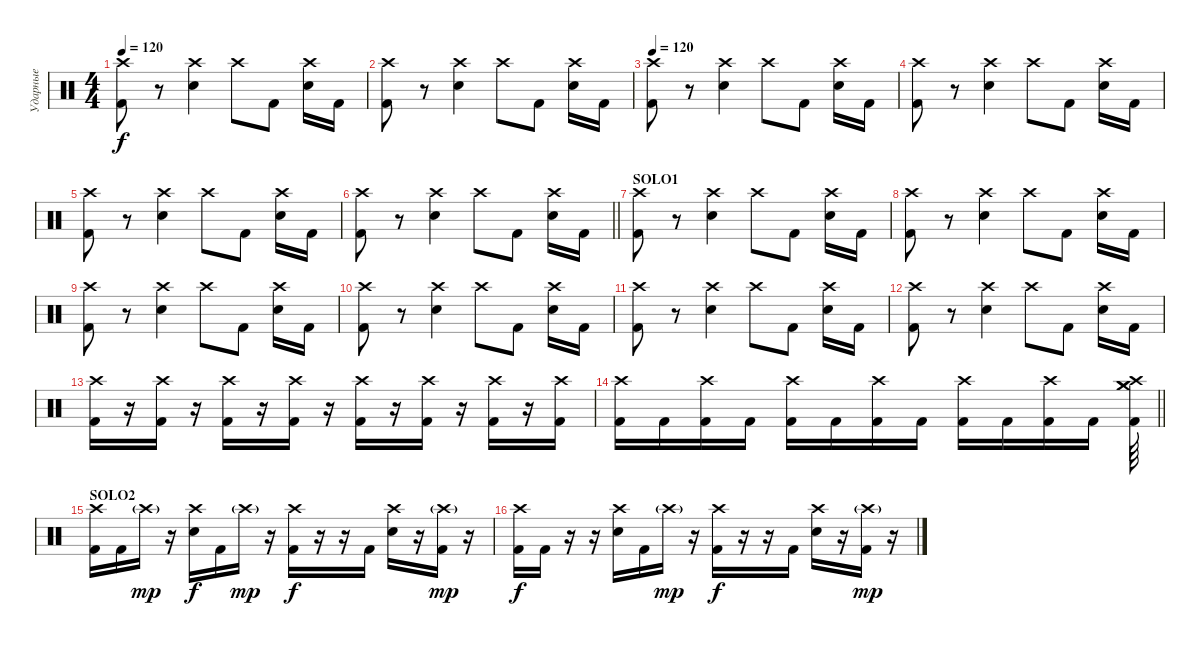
\track ("Ударные" "Ударные") {instrument percussion}
\staff {score}
\articulation defaults
\ts (4 4)
\tempo 120
\clef neutral
\ks c
("Crash high (hit)" "Kick (hit) 2").8{dy f} r.8 ("Crash high (hit)" "Electric Snare (hit)").4 "Crash high (hit)".8 "Kick (hit) 2".8 ("Crash high (hit)" "Electric Snare (hit)").16 "Kick (hit) 2".16 |
("Crash high (hit)" "Kick (hit) 2").8 r.8 ("Crash high (hit)" "Electric Snare (hit)").4 "Crash high (hit)".8 "Kick (hit) 2".8 ("Crash high (hit)" "Electric Snare (hit)").16 "Kick (hit) 2".16 |
\tempo 120
("Crash high (hit)" "Kick (hit) 2").8 r.8 ("Crash high (hit)" "Electric Snare (hit)").4 "Crash high (hit)".8 "Kick (hit) 2".8 ("Crash high (hit)" "Electric Snare (hit)").16 "Kick (hit) 2".16 |
("Crash high (hit)" "Kick (hit) 2").8 r.8 ("Crash high (hit)" "Electric Snare (hit)").4 "Crash high (hit)".8 "Kick (hit) 2".8 ("Crash high (hit)" "Electric Snare (hit)").16 "Kick (hit) 2".16 |
("Crash high (hit)" "Kick (hit) 2").8 r.8 ("Crash high (hit)" "Electric Snare (hit)").4 "Crash high (hit)".8 "Kick (hit) 2".8 ("Crash high (hit)" "Electric Snare (hit)").16 "Kick (hit) 2".16 |
\barLineRight lightlight
("Crash high (hit)" "Kick (hit) 2").8 r.8 ("Crash high (hit)" "Electric Snare (hit)").4 "Crash high (hit)".8 "Kick (hit) 2".8 ("Crash high (hit)" "Electric Snare (hit)").16 "Kick (hit) 2".16 |
\section ("" "SOLO1")
("Crash high (hit)" "Kick (hit) 2").8 r.8 ("Crash high (hit)" "Electric Snare (hit)").4 "Crash high (hit)".8 "Kick (hit) 2".8 ("Crash high (hit)" "Electric Snare (hit)").16 "Kick (hit) 2".16 |
("Crash high (hit)" "Kick (hit) 2").8 r.8 ("Crash high (hit)" "Electric Snare (hit)").4 "Crash high (hit)".8 "Kick (hit) 2".8 ("Crash high (hit)" "Electric Snare (hit)").16 "Kick (hit) 2".16 |
("Crash high (hit)" "Kick (hit) 2").8 r.8 ("Crash high (hit)" "Electric Snare (hit)").4 "Crash high (hit)".8 "Kick (hit) 2".8 ("Crash high (hit)" "Electric Snare (hit)").16 "Kick (hit) 2".16 |
("Crash high (hit)" "Kick (hit) 2").8 r.8 ("Crash high (hit)" "Electric Snare (hit)").4 "Crash high (hit)".8 "Kick (hit) 2".8 ("Crash high (hit)" "Electric Snare (hit)").16 "Kick (hit) 2".16 |
("Crash high (hit)" "Kick (hit) 2").8 r.8 ("Crash high (hit)" "Electric Snare (hit)").4 "Crash high (hit)".8 "Kick (hit) 2".8 ("Crash high (hit)" "Electric Snare (hit)").16 "Kick (hit) 2".16 |
("Crash high (hit)" "Kick (hit) 2").8 r.8 ("Crash high (hit)" "Electric Snare (hit)").4 "Crash high (hit)".8 "Kick (hit) 2".8 ("Crash high (hit)" "Electric Snare (hit)").16 "Kick (hit) 2".16 |
("Crash high (hit)" "Kick (hit) 2").16 r.16 ("Crash high (hit)" "Kick (hit) 2").16 r.16 ("Crash high (hit)" "Kick (hit) 2").16 r.16 ("Crash high (hit)" "Kick (hit) 2").16 r.16 ("Crash high (hit)" "Kick (hit) 2").16 r.16 ("Crash high (hit)" "Kick (hit) 2").16 r.16 ("Crash high (hit)" "Kick (hit) 2").16 r.16 ("Crash high (hit)" "Kick (hit) 2").16 |
\barLineRight lightlight
("Crash high (hit)" "Kick (hit) 2").16 "Kick (hit) 2".16 ("Crash high (hit)" "Kick (hit) 2").16 "Kick (hit) 2".16 ("Crash high (hit)" "Kick (hit) 2").16 "Kick (hit) 2".16 ("Crash high (hit)" "Kick (hit) 2").16 "Kick (hit) 2".16 ("Crash high (hit)" "Kick (hit) 2").16 "Kick (hit) 2".16 ("Crash high (hit)" "Kick (hit) 2").16 "Kick (hit) 2".16 ("Crash high (hit)" "Crash medium (hit)" "Crash medium (hit)" "Kick (hit) 2").64 |
\section ("" "SOLO2")
("Crash high (hit)" "Kick (hit) 2").16 "Kick (hit) 2".16 "Crash high (hit)"{g}.16{dy mp} r.16 ("Crash high (hit)" "Snare (hit) 2").16{dy f} "Kick (hit) 2".16 "Crash high (hit)"{g}.16{dy mp} r.16 ("Crash high (hit)" "Kick (hit) 2").16{dy f} r.16 r.16 "Kick (hit) 2".16 ("Crash high (hit)" "Snare (hit) 2").16 r.16 ("Crash high (hit)"{g} "Kick (hit) 2").16{dy mp} r.16 |
("Crash high (hit)" "Kick (hit) 2").16{dy f} "Kick (hit) 2".16 r.16 r.16 ("Crash high (hit)" "Snare (hit) 2").16 "Kick (hit) 2".16 "Crash high (hit)"{g}.16{dy mp} r.16 ("Crash high (hit)" "Kick (hit) 2").16{dy f} r.16 r.16 "Kick (hit) 2".16 ("Crash high (hit)" "Snare (hit) 2").16 r.16 ("Crash high (hit)"{g} "Kick (hit) 2").16{dy mp} r.16
